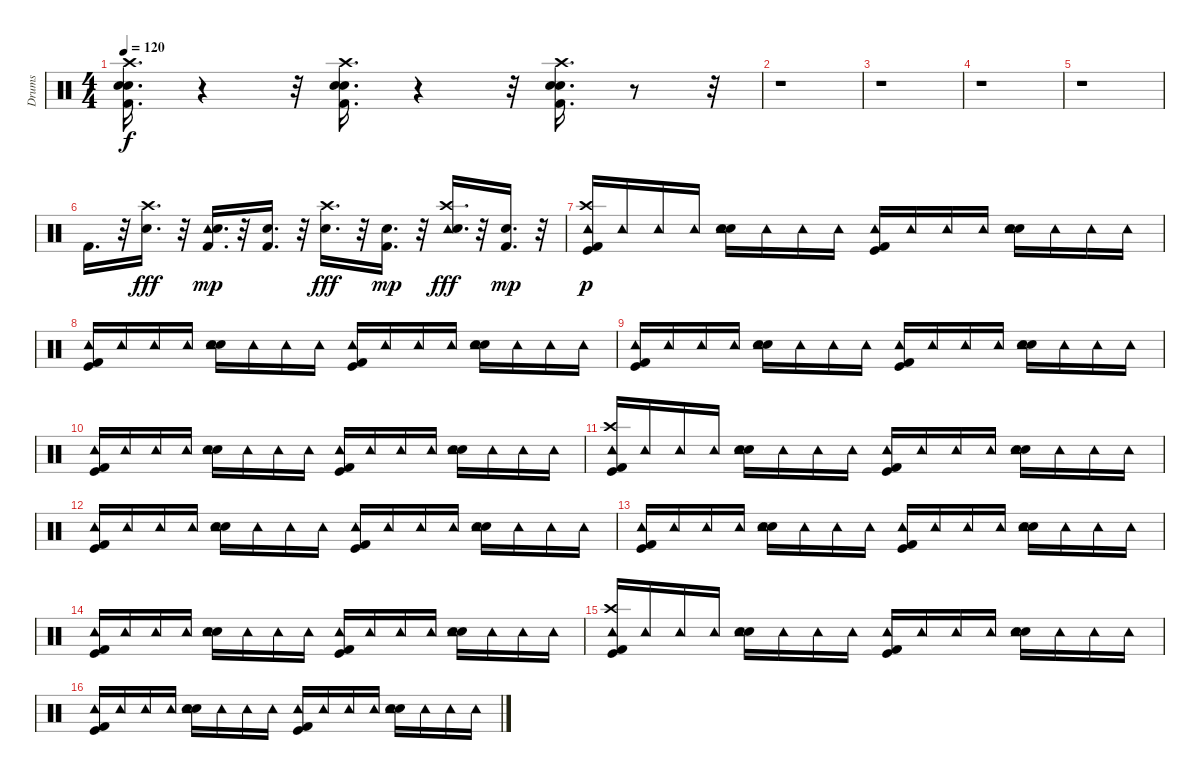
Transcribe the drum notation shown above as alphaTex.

\track ("Drums" "Drums") {instrument percussion}
\staff {score}
\articulation defaults
\ts (4 4)
\tempo 120
\clef neutral
\ks c
("Kick (hit) 2" "Snare (hit) 2" "Electric Snare (hit)" "Crash high (hit)").16{d dy f} r.4 r.32 ("Crash high (hit)" "Kick (hit) 2" "Snare (hit) 2" "Electric Snare (hit)").16{d} r.4 r.32 ("Crash high (hit)" "Kick (hit) 2" "Snare (hit) 2" "Electric Snare (hit)").16{d} r.8 r.32 |
r.1 |
r.1 |
r.1 |
r.1 |
"Kick (hit) 2".16{d} r.32 ("Crash high (hit)" "Snare (hit) 2").16{d dy fff} r.32 ("Tambourine (hit)" "Kick (hit) 2" "Electric Snare (hit)").16{d dy mp} r.32 ("Kick (hit) 2" "Electric Snare (hit)").16{d} r.32 ("Crash high (hit)" "Snare (hit) 2").16{d dy fff} r.32 ("Kick (hit) 2" "Electric Snare (hit)").16{d dy mp} r.32 ("Tambourine (hit)" "Crash high (hit)" "Snare (hit) 2").16{d dy fff} r.32 ("Kick (hit) 2" "Electric Snare (hit)").16{d dy mp} r.32 |
("Kick (hit) 2" "Tambourine (hit)" "Crash high (hit)" "Kick (hit)").16{dy p} "Tambourine (hit)".16 "Tambourine (hit)".16 "Tambourine (hit)".16 ("Snare (hit) 2" "Tambourine (hit)" "Electric Snare (hit)").16 "Tambourine (hit)".16 "Tambourine (hit)".16 "Tambourine (hit)".16 ("Kick (hit) 2" "Tambourine (hit)" "Kick (hit)").16 "Tambourine (hit)".16 "Tambourine (hit)".16 "Tambourine (hit)".16 ("Snare (hit) 2" "Tambourine (hit)" "Electric Snare (hit)").16 "Tambourine (hit)".16 "Tambourine (hit)".16 "Tambourine (hit)".16 |
("Kick (hit) 2" "Tambourine (hit)" "Kick (hit)").16 "Tambourine (hit)".16 "Tambourine (hit)".16 "Tambourine (hit)".16 ("Snare (hit) 2" "Tambourine (hit)" "Electric Snare (hit)").16 "Tambourine (hit)".16 "Tambourine (hit)".16 "Tambourine (hit)".16 ("Kick (hit) 2" "Tambourine (hit)" "Kick (hit)").16 "Tambourine (hit)".16 "Tambourine (hit)".16 "Tambourine (hit)".16 ("Snare (hit) 2" "Tambourine (hit)" "Electric Snare (hit)").16 "Tambourine (hit)".16 "Tambourine (hit)".16 "Tambourine (hit)".16 |
("Kick (hit) 2" "Tambourine (hit)" "Kick (hit)").16 "Tambourine (hit)".16 "Tambourine (hit)".16 "Tambourine (hit)".16 ("Snare (hit) 2" "Tambourine (hit)" "Electric Snare (hit)").16 "Tambourine (hit)".16 "Tambourine (hit)".16 "Tambourine (hit)".16 ("Kick (hit) 2" "Tambourine (hit)" "Kick (hit)").16 "Tambourine (hit)".16 "Tambourine (hit)".16 "Tambourine (hit)".16 ("Snare (hit) 2" "Tambourine (hit)" "Electric Snare (hit)").16 "Tambourine (hit)".16 "Tambourine (hit)".16 "Tambourine (hit)".16 |
("Kick (hit) 2" "Tambourine (hit)" "Kick (hit)").16 "Tambourine (hit)".16 "Tambourine (hit)".16 "Tambourine (hit)".16 ("Snare (hit) 2" "Tambourine (hit)" "Electric Snare (hit)").16 "Tambourine (hit)".16 "Tambourine (hit)".16 "Tambourine (hit)".16 ("Kick (hit) 2" "Tambourine (hit)" "Kick (hit)").16 "Tambourine (hit)".16 "Tambourine (hit)".16 "Tambourine (hit)".16 ("Snare (hit) 2" "Tambourine (hit)" "Electric Snare (hit)").16 "Tambourine (hit)".16 "Tambourine (hit)".16 "Tambourine (hit)".16 |
("Kick (hit) 2" "Tambourine (hit)" "Crash high (hit)" "Kick (hit)").16 "Tambourine (hit)".16 "Tambourine (hit)".16 "Tambourine (hit)".16 ("Snare (hit) 2" "Tambourine (hit)" "Electric Snare (hit)").16 "Tambourine (hit)".16 "Tambourine (hit)".16 "Tambourine (hit)".16 ("Kick (hit) 2" "Tambourine (hit)" "Kick (hit)").16 "Tambourine (hit)".16 "Tambourine (hit)".16 "Tambourine (hit)".16 ("Snare (hit) 2" "Tambourine (hit)" "Electric Snare (hit)").16 "Tambourine (hit)".16 "Tambourine (hit)".16 "Tambourine (hit)".16 |
("Kick (hit) 2" "Tambourine (hit)" "Kick (hit)").16 "Tambourine (hit)".16 "Tambourine (hit)".16 "Tambourine (hit)".16 ("Snare (hit) 2" "Tambourine (hit)" "Electric Snare (hit)").16 "Tambourine (hit)".16 "Tambourine (hit)".16 "Tambourine (hit)".16 ("Kick (hit) 2" "Tambourine (hit)" "Kick (hit)").16 "Tambourine (hit)".16 "Tambourine (hit)".16 "Tambourine (hit)".16 ("Snare (hit) 2" "Tambourine (hit)" "Electric Snare (hit)").16 "Tambourine (hit)".16 "Tambourine (hit)".16 "Tambourine (hit)".16 |
("Kick (hit) 2" "Tambourine (hit)" "Kick (hit)").16 "Tambourine (hit)".16 "Tambourine (hit)".16 "Tambourine (hit)".16 ("Snare (hit) 2" "Tambourine (hit)" "Electric Snare (hit)").16 "Tambourine (hit)".16 "Tambourine (hit)".16 "Tambourine (hit)".16 ("Kick (hit) 2" "Tambourine (hit)" "Kick (hit)").16 "Tambourine (hit)".16 "Tambourine (hit)".16 "Tambourine (hit)".16 ("Snare (hit) 2" "Tambourine (hit)" "Electric Snare (hit)").16 "Tambourine (hit)".16 "Tambourine (hit)".16 "Tambourine (hit)".16 |
("Kick (hit) 2" "Tambourine (hit)" "Kick (hit)").16 "Tambourine (hit)".16 "Tambourine (hit)".16 "Tambourine (hit)".16 ("Snare (hit) 2" "Tambourine (hit)" "Electric Snare (hit)").16 "Tambourine (hit)".16 "Tambourine (hit)".16 "Tambourine (hit)".16 ("Kick (hit) 2" "Tambourine (hit)" "Kick (hit)").16 "Tambourine (hit)".16 "Tambourine (hit)".16 "Tambourine (hit)".16 ("Snare (hit) 2" "Tambourine (hit)" "Electric Snare (hit)").16 "Tambourine (hit)".16 "Tambourine (hit)".16 "Tambourine (hit)".16 |
("Kick (hit) 2" "Tambourine (hit)" "Crash high (hit)" "Kick (hit)").16 "Tambourine (hit)".16 "Tambourine (hit)".16 "Tambourine (hit)".16 ("Snare (hit) 2" "Tambourine (hit)" "Electric Snare (hit)").16 "Tambourine (hit)".16 "Tambourine (hit)".16 "Tambourine (hit)".16 ("Kick (hit) 2" "Tambourine (hit)" "Kick (hit)").16 "Tambourine (hit)".16 "Tambourine (hit)".16 "Tambourine (hit)".16 ("Snare (hit) 2" "Tambourine (hit)" "Electric Snare (hit)").16 "Tambourine (hit)".16 "Tambourine (hit)".16 "Tambourine (hit)".16 |
("Kick (hit) 2" "Tambourine (hit)" "Kick (hit)").16 "Tambourine (hit)".16 "Tambourine (hit)".16 "Tambourine (hit)".16 ("Snare (hit) 2" "Tambourine (hit)" "Electric Snare (hit)").16 "Tambourine (hit)".16 "Tambourine (hit)".16 "Tambourine (hit)".16 ("Kick (hit) 2" "Tambourine (hit)" "Kick (hit)").16 "Tambourine (hit)".16 "Tambourine (hit)".16 "Tambourine (hit)".16 ("Snare (hit) 2" "Tambourine (hit)" "Electric Snare (hit)").16 "Tambourine (hit)".16 "Tambourine (hit)".16 "Tambourine (hit)".16
